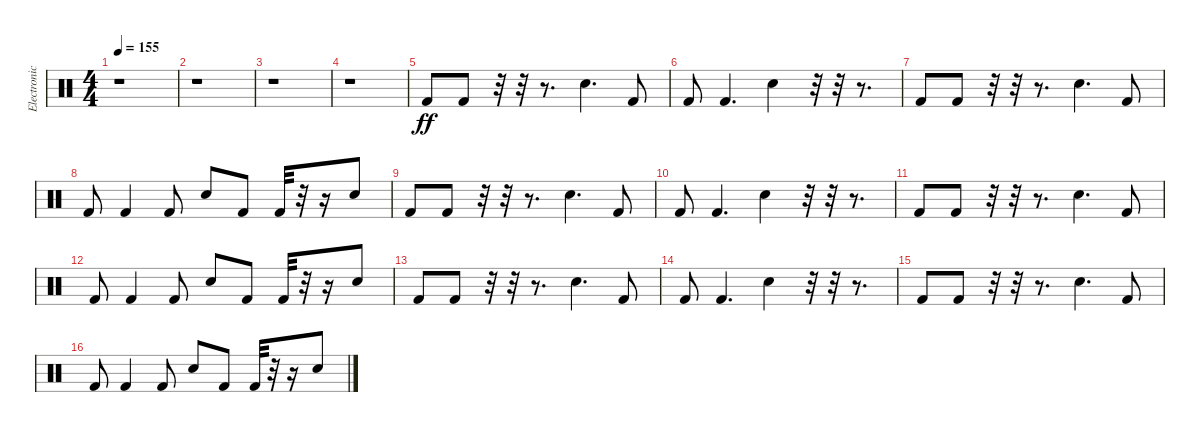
\track ("Electronic Drums" "Electronic") {instrument percussion}
\staff {score}
\articulation defaults
\ts (4 4)
\tempo 155
\clef neutral
\ks c
r.1{dy ff} |
r.1 |
r.1 |
r.1 |
"Kick (hit) 2".8 "Kick (hit) 2".8 r.32 r.32 r.8{d} "Snare (hit) 2".4{d} "Kick (hit) 2".8 |
"Kick (hit) 2".8 "Kick (hit) 2".4{d} "Snare (hit) 2".4 r.32 r.32 r.8{d} |
"Kick (hit) 2".8 "Kick (hit) 2".8 r.32 r.32 r.8{d} "Snare (hit) 2".4{d} "Kick (hit) 2".8 |
"Kick (hit) 2".8 "Kick (hit) 2".4 "Kick (hit) 2".8 "Snare (hit) 2".8 "Kick (hit) 2".8 "Kick (hit) 2".32 r.32 r.16 "Snare (hit) 2".8 |
"Kick (hit) 2".8 "Kick (hit) 2".8 r.32 r.32 r.8{d} "Snare (hit) 2".4{d} "Kick (hit) 2".8 |
"Kick (hit) 2".8 "Kick (hit) 2".4{d} "Snare (hit) 2".4 r.32 r.32 r.8{d} |
"Kick (hit) 2".8 "Kick (hit) 2".8 r.32 r.32 r.8{d} "Snare (hit) 2".4{d} "Kick (hit) 2".8 |
"Kick (hit) 2".8 "Kick (hit) 2".4 "Kick (hit) 2".8 "Snare (hit) 2".8 "Kick (hit) 2".8 "Kick (hit) 2".32 r.32 r.16 "Snare (hit) 2".8 |
"Kick (hit) 2".8 "Kick (hit) 2".8 r.32 r.32 r.8{d} "Snare (hit) 2".4{d} "Kick (hit) 2".8 |
"Kick (hit) 2".8 "Kick (hit) 2".4{d} "Snare (hit) 2".4 r.32 r.32 r.8{d} |
"Kick (hit) 2".8 "Kick (hit) 2".8 r.32 r.32 r.8{d} "Snare (hit) 2".4{d} "Kick (hit) 2".8 |
"Kick (hit) 2".8 "Kick (hit) 2".4 "Kick (hit) 2".8 "Snare (hit) 2".8 "Kick (hit) 2".8 "Kick (hit) 2".32 r.32 r.16 "Snare (hit) 2".8
